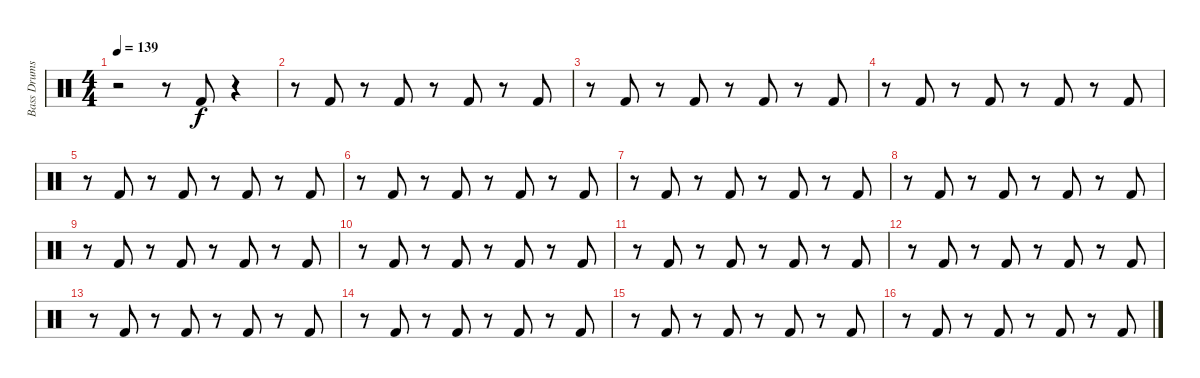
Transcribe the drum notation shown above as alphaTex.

\track ("Bass Drums" "Bass Drums") {instrument percussion}
\staff {score}
\articulation defaults
\ts (4 4)
\tempo 139
\clef neutral
\ks c
r.2{dy f} r.8 "Kick (hit) 2".8 r.4 |
r.8 "Kick (hit) 2".8 r.8 "Kick (hit) 2".8 r.8 "Kick (hit) 2".8 r.8 "Kick (hit) 2".8 |
r.8 "Kick (hit) 2".8 r.8 "Kick (hit) 2".8 r.8 "Kick (hit) 2".8 r.8 "Kick (hit) 2".8 |
r.8 "Kick (hit) 2".8 r.8 "Kick (hit) 2".8 r.8 "Kick (hit) 2".8 r.8 "Kick (hit) 2".8 |
r.8 "Kick (hit) 2".8 r.8 "Kick (hit) 2".8 r.8 "Kick (hit) 2".8 r.8 "Kick (hit) 2".8 |
r.8 "Kick (hit) 2".8 r.8 "Kick (hit) 2".8 r.8 "Kick (hit) 2".8 r.8 "Kick (hit) 2".8 |
r.8 "Kick (hit) 2".8 r.8 "Kick (hit) 2".8 r.8 "Kick (hit) 2".8 r.8 "Kick (hit) 2".8 |
r.8 "Kick (hit) 2".8 r.8 "Kick (hit) 2".8 r.8 "Kick (hit) 2".8 r.8 "Kick (hit) 2".8 |
r.8 "Kick (hit) 2".8 r.8 "Kick (hit) 2".8 r.8 "Kick (hit) 2".8 r.8 "Kick (hit) 2".8 |
r.8 "Kick (hit) 2".8 r.8 "Kick (hit) 2".8 r.8 "Kick (hit) 2".8 r.8 "Kick (hit) 2".8 |
r.8 "Kick (hit) 2".8 r.8 "Kick (hit) 2".8 r.8 "Kick (hit) 2".8 r.8 "Kick (hit) 2".8 |
r.8 "Kick (hit) 2".8 r.8 "Kick (hit) 2".8 r.8 "Kick (hit) 2".8 r.8 "Kick (hit) 2".8 |
r.8 "Kick (hit) 2".8 r.8 "Kick (hit) 2".8 r.8 "Kick (hit) 2".8 r.8 "Kick (hit) 2".8 |
r.8 "Kick (hit) 2".8 r.8 "Kick (hit) 2".8 r.8 "Kick (hit) 2".8 r.8 "Kick (hit) 2".8 |
r.8 "Kick (hit) 2".8 r.8 "Kick (hit) 2".8 r.8 "Kick (hit) 2".8 r.8 "Kick (hit) 2".8 |
r.8 "Kick (hit) 2".8 r.8 "Kick (hit) 2".8 r.8 "Kick (hit) 2".8 r.8 "Kick (hit) 2".8
